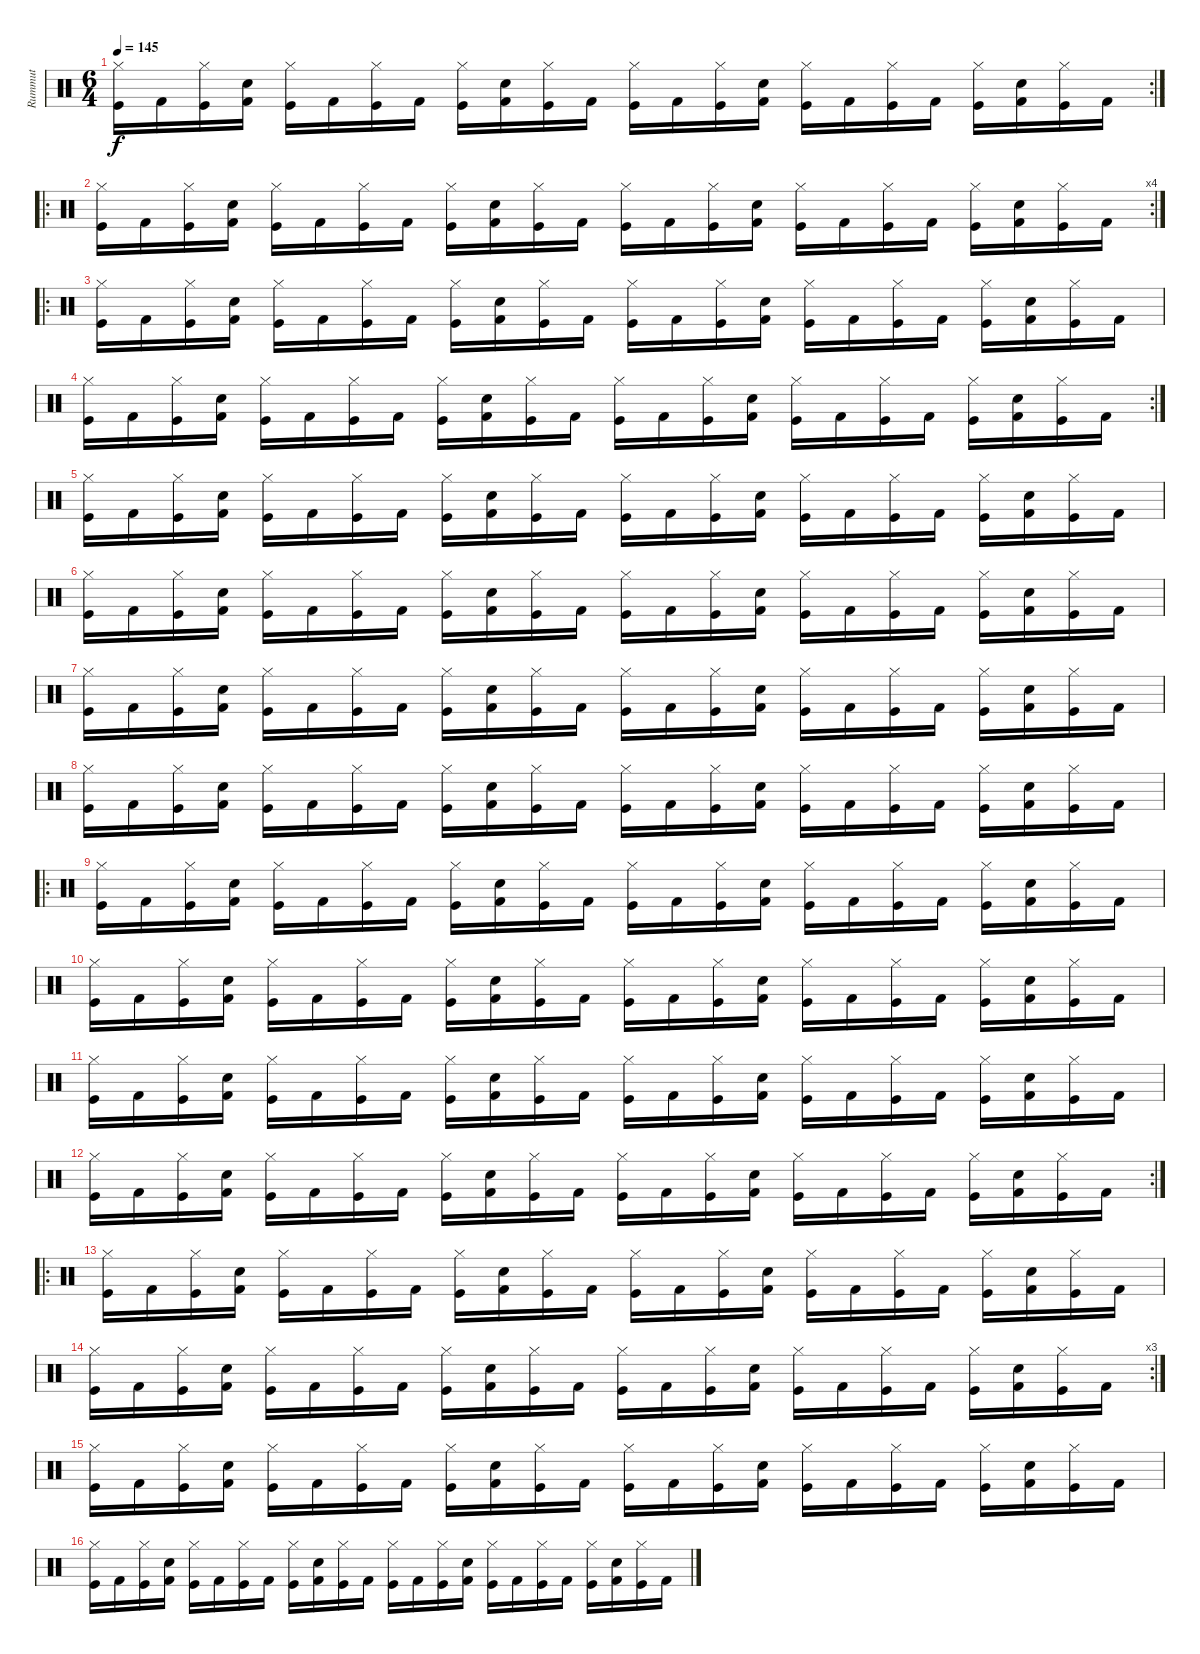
\track ("Rummut" "Rummut") {instrument percussion}
\staff {score}
\articulation defaults
\rc 2
\ts (6 4)
\tempo 145
\clef neutral
\ks c
("Hi-Hat (closed)" "Kick (hit)").16{dy f} "Kick (hit) 2".16 ("Hi-Hat (closed)" "Kick (hit)").16 ("Snare (hit) 2" "Kick (hit) 2").16 ("Hi-Hat (closed)" "Kick (hit)").16 "Kick (hit) 2".16 ("Hi-Hat (closed)" "Kick (hit)").16 "Kick (hit) 2".16 ("Hi-Hat (closed)" "Kick (hit)").16 ("Snare (hit) 2" "Kick (hit) 2").16 ("Hi-Hat (closed)" "Kick (hit)").16 "Kick (hit) 2".16 ("Hi-Hat (closed)" "Kick (hit)").16 "Kick (hit) 2".16 ("Hi-Hat (closed)" "Kick (hit)").16 ("Snare (hit) 2" "Kick (hit) 2").16 ("Hi-Hat (closed)" "Kick (hit)").16 "Kick (hit) 2".16 ("Hi-Hat (closed)" "Kick (hit)").16 "Kick (hit) 2".16 ("Hi-Hat (closed)" "Kick (hit)").16 ("Snare (hit) 2" "Kick (hit) 2").16 ("Hi-Hat (closed)" "Kick (hit)").16 "Kick (hit) 2".16 |
\ro
\rc 4
("Hi-Hat (closed)" "Kick (hit)").16 "Kick (hit) 2".16 ("Hi-Hat (closed)" "Kick (hit)").16 ("Snare (hit) 2" "Kick (hit) 2").16 ("Hi-Hat (closed)" "Kick (hit)").16 "Kick (hit) 2".16 ("Hi-Hat (closed)" "Kick (hit)").16 "Kick (hit) 2".16 ("Hi-Hat (closed)" "Kick (hit)").16 ("Snare (hit) 2" "Kick (hit) 2").16 ("Hi-Hat (closed)" "Kick (hit)").16 "Kick (hit) 2".16 ("Hi-Hat (closed)" "Kick (hit)").16 "Kick (hit) 2".16 ("Hi-Hat (closed)" "Kick (hit)").16 ("Snare (hit) 2" "Kick (hit) 2").16 ("Hi-Hat (closed)" "Kick (hit)").16 "Kick (hit) 2".16 ("Hi-Hat (closed)" "Kick (hit)").16 "Kick (hit) 2".16 ("Hi-Hat (closed)" "Kick (hit)").16 ("Snare (hit) 2" "Kick (hit) 2").16 ("Hi-Hat (closed)" "Kick (hit)").16 "Kick (hit) 2".16 |
\ro
("Hi-Hat (closed)" "Kick (hit)").16 "Kick (hit) 2".16 ("Hi-Hat (closed)" "Kick (hit)").16 ("Snare (hit) 2" "Kick (hit) 2").16 ("Hi-Hat (closed)" "Kick (hit)").16 "Kick (hit) 2".16 ("Hi-Hat (closed)" "Kick (hit)").16 "Kick (hit) 2".16 ("Hi-Hat (closed)" "Kick (hit)").16 ("Snare (hit) 2" "Kick (hit) 2").16 ("Hi-Hat (closed)" "Kick (hit)").16 "Kick (hit) 2".16 ("Hi-Hat (closed)" "Kick (hit)").16 "Kick (hit) 2".16 ("Hi-Hat (closed)" "Kick (hit)").16 ("Snare (hit) 2" "Kick (hit) 2").16 ("Hi-Hat (closed)" "Kick (hit)").16 "Kick (hit) 2".16 ("Hi-Hat (closed)" "Kick (hit)").16 "Kick (hit) 2".16 ("Hi-Hat (closed)" "Kick (hit)").16 ("Snare (hit) 2" "Kick (hit) 2").16 ("Hi-Hat (closed)" "Kick (hit)").16 "Kick (hit) 2".16 |
\rc 2
("Hi-Hat (closed)" "Kick (hit)").16 "Kick (hit) 2".16 ("Hi-Hat (closed)" "Kick (hit)").16 ("Snare (hit) 2" "Kick (hit) 2").16 ("Hi-Hat (closed)" "Kick (hit)").16 "Kick (hit) 2".16 ("Hi-Hat (closed)" "Kick (hit)").16 "Kick (hit) 2".16 ("Hi-Hat (closed)" "Kick (hit)").16 ("Snare (hit) 2" "Kick (hit) 2").16 ("Hi-Hat (closed)" "Kick (hit)").16 "Kick (hit) 2".16 ("Hi-Hat (closed)" "Kick (hit)").16 "Kick (hit) 2".16 ("Hi-Hat (closed)" "Kick (hit)").16 ("Snare (hit) 2" "Kick (hit) 2").16 ("Hi-Hat (closed)" "Kick (hit)").16 "Kick (hit) 2".16 ("Hi-Hat (closed)" "Kick (hit)").16 "Kick (hit) 2".16 ("Hi-Hat (closed)" "Kick (hit)").16 ("Snare (hit) 2" "Kick (hit) 2").16 ("Hi-Hat (closed)" "Kick (hit)").16 "Kick (hit) 2".16 |
("Hi-Hat (closed)" "Kick (hit)").16 "Kick (hit) 2".16 ("Hi-Hat (closed)" "Kick (hit)").16 ("Snare (hit) 2" "Kick (hit) 2").16 ("Hi-Hat (closed)" "Kick (hit)").16 "Kick (hit) 2".16 ("Hi-Hat (closed)" "Kick (hit)").16 "Kick (hit) 2".16 ("Hi-Hat (closed)" "Kick (hit)").16 ("Snare (hit) 2" "Kick (hit) 2").16 ("Hi-Hat (closed)" "Kick (hit)").16 "Kick (hit) 2".16 ("Hi-Hat (closed)" "Kick (hit)").16 "Kick (hit) 2".16 ("Hi-Hat (closed)" "Kick (hit)").16 ("Snare (hit) 2" "Kick (hit) 2").16 ("Hi-Hat (closed)" "Kick (hit)").16 "Kick (hit) 2".16 ("Hi-Hat (closed)" "Kick (hit)").16 "Kick (hit) 2".16 ("Hi-Hat (closed)" "Kick (hit)").16 ("Snare (hit) 2" "Kick (hit) 2").16 ("Hi-Hat (closed)" "Kick (hit)").16 "Kick (hit) 2".16 |
("Hi-Hat (closed)" "Kick (hit)").16 "Kick (hit) 2".16 ("Hi-Hat (closed)" "Kick (hit)").16 ("Snare (hit) 2" "Kick (hit) 2").16 ("Hi-Hat (closed)" "Kick (hit)").16 "Kick (hit) 2".16 ("Hi-Hat (closed)" "Kick (hit)").16 "Kick (hit) 2".16 ("Hi-Hat (closed)" "Kick (hit)").16 ("Snare (hit) 2" "Kick (hit) 2").16 ("Hi-Hat (closed)" "Kick (hit)").16 "Kick (hit) 2".16 ("Hi-Hat (closed)" "Kick (hit)").16 "Kick (hit) 2".16 ("Hi-Hat (closed)" "Kick (hit)").16 ("Snare (hit) 2" "Kick (hit) 2").16 ("Hi-Hat (closed)" "Kick (hit)").16 "Kick (hit) 2".16 ("Hi-Hat (closed)" "Kick (hit)").16 "Kick (hit) 2".16 ("Hi-Hat (closed)" "Kick (hit)").16 ("Snare (hit) 2" "Kick (hit) 2").16 ("Hi-Hat (closed)" "Kick (hit)").16 "Kick (hit) 2".16 |
("Hi-Hat (closed)" "Kick (hit)").16 "Kick (hit) 2".16 ("Hi-Hat (closed)" "Kick (hit)").16 ("Snare (hit) 2" "Kick (hit) 2").16 ("Hi-Hat (closed)" "Kick (hit)").16 "Kick (hit) 2".16 ("Hi-Hat (closed)" "Kick (hit)").16 "Kick (hit) 2".16 ("Hi-Hat (closed)" "Kick (hit)").16 ("Snare (hit) 2" "Kick (hit) 2").16 ("Hi-Hat (closed)" "Kick (hit)").16 "Kick (hit) 2".16 ("Hi-Hat (closed)" "Kick (hit)").16 "Kick (hit) 2".16 ("Hi-Hat (closed)" "Kick (hit)").16 ("Snare (hit) 2" "Kick (hit) 2").16 ("Hi-Hat (closed)" "Kick (hit)").16 "Kick (hit) 2".16 ("Hi-Hat (closed)" "Kick (hit)").16 "Kick (hit) 2".16 ("Hi-Hat (closed)" "Kick (hit)").16 ("Snare (hit) 2" "Kick (hit) 2").16 ("Hi-Hat (closed)" "Kick (hit)").16 "Kick (hit) 2".16 |
("Hi-Hat (closed)" "Kick (hit)").16 "Kick (hit) 2".16 ("Hi-Hat (closed)" "Kick (hit)").16 ("Snare (hit) 2" "Kick (hit) 2").16 ("Hi-Hat (closed)" "Kick (hit)").16 "Kick (hit) 2".16 ("Hi-Hat (closed)" "Kick (hit)").16 "Kick (hit) 2".16 ("Hi-Hat (closed)" "Kick (hit)").16 ("Snare (hit) 2" "Kick (hit) 2").16 ("Hi-Hat (closed)" "Kick (hit)").16 "Kick (hit) 2".16 ("Hi-Hat (closed)" "Kick (hit)").16 "Kick (hit) 2".16 ("Hi-Hat (closed)" "Kick (hit)").16 ("Snare (hit) 2" "Kick (hit) 2").16 ("Hi-Hat (closed)" "Kick (hit)").16 "Kick (hit) 2".16 ("Hi-Hat (closed)" "Kick (hit)").16 "Kick (hit) 2".16 ("Hi-Hat (closed)" "Kick (hit)").16 ("Snare (hit) 2" "Kick (hit) 2").16 ("Hi-Hat (closed)" "Kick (hit)").16 "Kick (hit) 2".16 |
\ro
("Hi-Hat (closed)" "Kick (hit)").16 "Kick (hit) 2".16 ("Hi-Hat (closed)" "Kick (hit)").16 ("Snare (hit) 2" "Kick (hit) 2").16 ("Hi-Hat (closed)" "Kick (hit)").16 "Kick (hit) 2".16 ("Hi-Hat (closed)" "Kick (hit)").16 "Kick (hit) 2".16 ("Hi-Hat (closed)" "Kick (hit)").16 ("Snare (hit) 2" "Kick (hit) 2").16 ("Hi-Hat (closed)" "Kick (hit)").16 "Kick (hit) 2".16 ("Hi-Hat (closed)" "Kick (hit)").16 "Kick (hit) 2".16 ("Hi-Hat (closed)" "Kick (hit)").16 ("Snare (hit) 2" "Kick (hit) 2").16 ("Hi-Hat (closed)" "Kick (hit)").16 "Kick (hit) 2".16 ("Hi-Hat (closed)" "Kick (hit)").16 "Kick (hit) 2".16 ("Hi-Hat (closed)" "Kick (hit)").16 ("Snare (hit) 2" "Kick (hit) 2").16 ("Hi-Hat (closed)" "Kick (hit)").16 "Kick (hit) 2".16 |
("Hi-Hat (closed)" "Kick (hit)").16 "Kick (hit) 2".16 ("Hi-Hat (closed)" "Kick (hit)").16 ("Snare (hit) 2" "Kick (hit) 2").16 ("Hi-Hat (closed)" "Kick (hit)").16 "Kick (hit) 2".16 ("Hi-Hat (closed)" "Kick (hit)").16 "Kick (hit) 2".16 ("Hi-Hat (closed)" "Kick (hit)").16 ("Snare (hit) 2" "Kick (hit) 2").16 ("Hi-Hat (closed)" "Kick (hit)").16 "Kick (hit) 2".16 ("Hi-Hat (closed)" "Kick (hit)").16 "Kick (hit) 2".16 ("Hi-Hat (closed)" "Kick (hit)").16 ("Snare (hit) 2" "Kick (hit) 2").16 ("Hi-Hat (closed)" "Kick (hit)").16 "Kick (hit) 2".16 ("Hi-Hat (closed)" "Kick (hit)").16 "Kick (hit) 2".16 ("Hi-Hat (closed)" "Kick (hit)").16 ("Snare (hit) 2" "Kick (hit) 2").16 ("Hi-Hat (closed)" "Kick (hit)").16 "Kick (hit) 2".16 |
("Hi-Hat (closed)" "Kick (hit)").16 "Kick (hit) 2".16 ("Hi-Hat (closed)" "Kick (hit)").16 ("Snare (hit) 2" "Kick (hit) 2").16 ("Hi-Hat (closed)" "Kick (hit)").16 "Kick (hit) 2".16 ("Hi-Hat (closed)" "Kick (hit)").16 "Kick (hit) 2".16 ("Hi-Hat (closed)" "Kick (hit)").16 ("Snare (hit) 2" "Kick (hit) 2").16 ("Hi-Hat (closed)" "Kick (hit)").16 "Kick (hit) 2".16 ("Hi-Hat (closed)" "Kick (hit)").16 "Kick (hit) 2".16 ("Hi-Hat (closed)" "Kick (hit)").16 ("Snare (hit) 2" "Kick (hit) 2").16 ("Hi-Hat (closed)" "Kick (hit)").16 "Kick (hit) 2".16 ("Hi-Hat (closed)" "Kick (hit)").16 "Kick (hit) 2".16 ("Hi-Hat (closed)" "Kick (hit)").16 ("Snare (hit) 2" "Kick (hit) 2").16 ("Hi-Hat (closed)" "Kick (hit)").16 "Kick (hit) 2".16 |
\rc 2
("Hi-Hat (closed)" "Kick (hit)").16 "Kick (hit) 2".16 ("Hi-Hat (closed)" "Kick (hit)").16 ("Snare (hit) 2" "Kick (hit) 2").16 ("Hi-Hat (closed)" "Kick (hit)").16 "Kick (hit) 2".16 ("Hi-Hat (closed)" "Kick (hit)").16 "Kick (hit) 2".16 ("Hi-Hat (closed)" "Kick (hit)").16 ("Snare (hit) 2" "Kick (hit) 2").16 ("Hi-Hat (closed)" "Kick (hit)").16 "Kick (hit) 2".16 ("Hi-Hat (closed)" "Kick (hit)").16 "Kick (hit) 2".16 ("Hi-Hat (closed)" "Kick (hit)").16 ("Snare (hit) 2" "Kick (hit) 2").16 ("Hi-Hat (closed)" "Kick (hit)").16 "Kick (hit) 2".16 ("Hi-Hat (closed)" "Kick (hit)").16 "Kick (hit) 2".16 ("Hi-Hat (closed)" "Kick (hit)").16 ("Snare (hit) 2" "Kick (hit) 2").16 ("Hi-Hat (closed)" "Kick (hit)").16 "Kick (hit) 2".16 |
\ro
("Hi-Hat (closed)" "Kick (hit)").16 "Kick (hit) 2".16 ("Hi-Hat (closed)" "Kick (hit)").16 ("Snare (hit) 2" "Kick (hit) 2").16 ("Hi-Hat (closed)" "Kick (hit)").16 "Kick (hit) 2".16 ("Hi-Hat (closed)" "Kick (hit)").16 "Kick (hit) 2".16 ("Hi-Hat (closed)" "Kick (hit)").16 ("Snare (hit) 2" "Kick (hit) 2").16 ("Hi-Hat (closed)" "Kick (hit)").16 "Kick (hit) 2".16 ("Hi-Hat (closed)" "Kick (hit)").16 "Kick (hit) 2".16 ("Hi-Hat (closed)" "Kick (hit)").16 ("Snare (hit) 2" "Kick (hit) 2").16 ("Hi-Hat (closed)" "Kick (hit)").16 "Kick (hit) 2".16 ("Hi-Hat (closed)" "Kick (hit)").16 "Kick (hit) 2".16 ("Hi-Hat (closed)" "Kick (hit)").16 ("Snare (hit) 2" "Kick (hit) 2").16 ("Hi-Hat (closed)" "Kick (hit)").16 "Kick (hit) 2".16 |
\rc 3
("Hi-Hat (closed)" "Kick (hit)").16 "Kick (hit) 2".16 ("Hi-Hat (closed)" "Kick (hit)").16 ("Snare (hit) 2" "Kick (hit) 2").16 ("Hi-Hat (closed)" "Kick (hit)").16 "Kick (hit) 2".16 ("Hi-Hat (closed)" "Kick (hit)").16 "Kick (hit) 2".16 ("Hi-Hat (closed)" "Kick (hit)").16 ("Snare (hit) 2" "Kick (hit) 2").16 ("Hi-Hat (closed)" "Kick (hit)").16 "Kick (hit) 2".16 ("Hi-Hat (closed)" "Kick (hit)").16 "Kick (hit) 2".16 ("Hi-Hat (closed)" "Kick (hit)").16 ("Snare (hit) 2" "Kick (hit) 2").16 ("Hi-Hat (closed)" "Kick (hit)").16 "Kick (hit) 2".16 ("Hi-Hat (closed)" "Kick (hit)").16 "Kick (hit) 2".16 ("Hi-Hat (closed)" "Kick (hit)").16 ("Snare (hit) 2" "Kick (hit) 2").16 ("Hi-Hat (closed)" "Kick (hit)").16 "Kick (hit) 2".16 |
("Hi-Hat (closed)" "Kick (hit)").16 "Kick (hit) 2".16 ("Hi-Hat (closed)" "Kick (hit)").16 ("Snare (hit) 2" "Kick (hit) 2").16 ("Hi-Hat (closed)" "Kick (hit)").16 "Kick (hit) 2".16 ("Hi-Hat (closed)" "Kick (hit)").16 "Kick (hit) 2".16 ("Hi-Hat (closed)" "Kick (hit)").16 ("Snare (hit) 2" "Kick (hit) 2").16 ("Hi-Hat (closed)" "Kick (hit)").16 "Kick (hit) 2".16 ("Hi-Hat (closed)" "Kick (hit)").16 "Kick (hit) 2".16 ("Hi-Hat (closed)" "Kick (hit)").16 ("Snare (hit) 2" "Kick (hit) 2").16 ("Hi-Hat (closed)" "Kick (hit)").16 "Kick (hit) 2".16 ("Hi-Hat (closed)" "Kick (hit)").16 "Kick (hit) 2".16 ("Hi-Hat (closed)" "Kick (hit)").16 ("Snare (hit) 2" "Kick (hit) 2").16 ("Hi-Hat (closed)" "Kick (hit)").16 "Kick (hit) 2".16 |
("Hi-Hat (closed)" "Kick (hit)").16 "Kick (hit) 2".16 ("Hi-Hat (closed)" "Kick (hit)").16 ("Snare (hit) 2" "Kick (hit) 2").16 ("Hi-Hat (closed)" "Kick (hit)").16 "Kick (hit) 2".16 ("Hi-Hat (closed)" "Kick (hit)").16 "Kick (hit) 2".16 ("Hi-Hat (closed)" "Kick (hit)").16 ("Snare (hit) 2" "Kick (hit) 2").16 ("Hi-Hat (closed)" "Kick (hit)").16 "Kick (hit) 2".16 ("Hi-Hat (closed)" "Kick (hit)").16 "Kick (hit) 2".16 ("Hi-Hat (closed)" "Kick (hit)").16 ("Snare (hit) 2" "Kick (hit) 2").16 ("Hi-Hat (closed)" "Kick (hit)").16 "Kick (hit) 2".16 ("Hi-Hat (closed)" "Kick (hit)").16 "Kick (hit) 2".16 ("Hi-Hat (closed)" "Kick (hit)").16 ("Snare (hit) 2" "Kick (hit) 2").16 ("Hi-Hat (closed)" "Kick (hit)").16 "Kick (hit) 2".16
